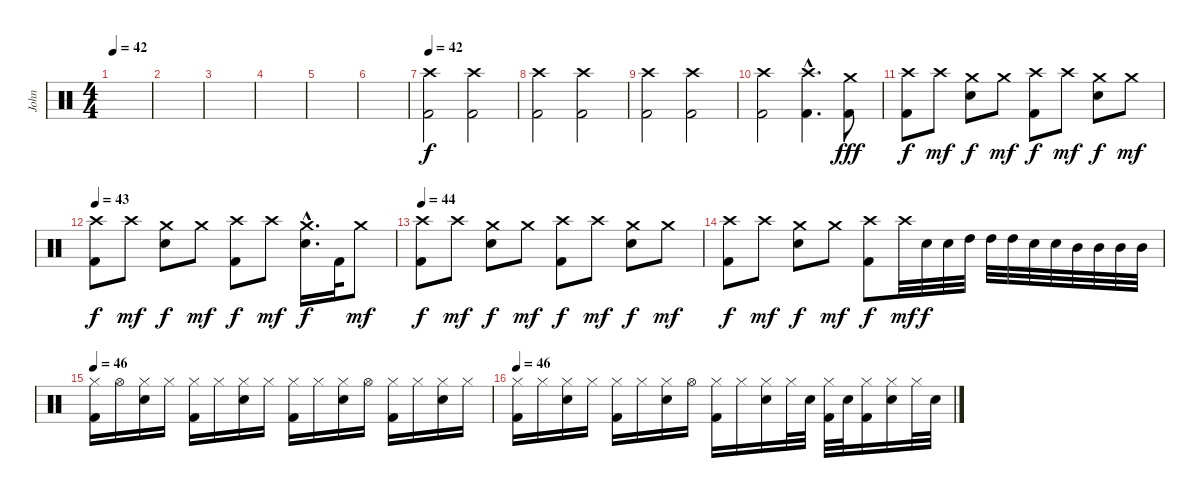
\track ("John" "John") {instrument percussion}
\staff {score}
\articulation defaults
\ts (4 4)
\tempo 42
\clef neutral
\ks c
|
|
|
|
|
|
\tempo 42
("Crash high (hit)" "Kick (hit) 2").2 ("Crash high (hit)" "Kick (hit) 2").2 |
("Crash high (hit)" "Kick (hit) 2").2 ("Crash high (hit)" "Kick (hit) 2").2 |
("Crash high (hit)" "Kick (hit) 2").2 ("Crash high (hit)" "Kick (hit) 2").2 |
("Crash high (hit)" "Kick (hit) 2").2 ("Crash high (hit)"{hac} "Kick (hit) 2"{hac}).4{d} ("Crash medium (hit)" "Kick (hit) 2").8{dy fff} |
("Crash high (hit)" "Kick (hit) 2").8{dy f} "Crash high (hit)".8{dy mf} ("Crash medium (hit)" "Snare (hit) 2").8{dy f} "Crash medium (hit)".8{dy mf} ("Crash high (hit)" "Kick (hit) 2").8{dy f} "Crash high (hit)".8{dy mf} ("Crash medium (hit)" "Snare (hit) 2").8{dy f} "Crash medium (hit)".8{dy mf} |
\tempo 43
("Crash high (hit)" "Kick (hit) 2").8{dy f} "Crash high (hit)".8{dy mf} ("Crash medium (hit)" "Snare (hit) 2").8{dy f} "Crash medium (hit)".8{dy mf} ("Crash high (hit)" "Kick (hit) 2").8{dy f} "Crash high (hit)".8{dy mf} ("Crash medium (hit)"{hac} "Snare (hit) 2"{hac}).16{d dy f} "Kick (hit) 2".32 "Crash medium (hit)".8{dy mf} |
\tempo 44
("Crash high (hit)" "Kick (hit) 2").8{dy f} "Crash high (hit)".8{dy mf} ("Crash medium (hit)" "Snare (hit) 2").8{dy f} "Crash medium (hit)".8{dy mf} ("Crash high (hit)" "Kick (hit) 2").8{dy f} "Crash high (hit)".8{dy mf} ("Crash medium (hit)" "Snare (hit) 2").8{dy f} "Crash medium (hit)".8{dy mf} |
("Crash high (hit)" "Kick (hit) 2").8{dy f} "Crash high (hit)".8{dy mf} ("Crash medium (hit)" "Snare (hit) 2").8{dy f} "Crash medium (hit)".8{dy mf} ("Crash high (hit)" "Kick (hit) 2").8{dy f} "Crash high (hit)".32{dy mf} "Snare (hit) 2".32{dy f} "Snare (hit) 2".32 "High Tom (hit)".32 "High Tom (hit)".32 "High Tom (hit)".32 "Snare (hit) 2".32 "Snare (hit) 2".32 "Mid Tom (hit)".32 "Mid Tom (hit)".32 "Mid Tom (hit)".32 "Mid Tom (hit)".32 |
\tempo 46
("Hi-Hat (closed)" "Kick (hit) 2").16 "Hi-Hat (open)".16 ("Hi-Hat (closed)" "Snare (hit) 2").16 "Hi-Hat (closed)".16 ("Hi-Hat (closed)" "Kick (hit) 2").16 "Hi-Hat (closed)".16 ("Hi-Hat (closed)" "Snare (hit) 2").16 "Hi-Hat (closed)".16 ("Hi-Hat (closed)" "Kick (hit) 2").16 "Hi-Hat (closed)".16 ("Hi-Hat (closed)" "Snare (hit) 2").16 "Hi-Hat (open)".16 ("Hi-Hat (closed)" "Kick (hit) 2").16 "Hi-Hat (closed)".16 ("Hi-Hat (closed)" "Snare (hit) 2").16 "Hi-Hat (closed)".16 |
\tempo 46
("Hi-Hat (closed)" "Kick (hit) 2").16 "Hi-Hat (closed)".16 ("Hi-Hat (closed)" "Snare (hit) 2").16 "Hi-Hat (closed)".16 ("Hi-Hat (closed)" "Kick (hit) 2").16 "Hi-Hat (closed)".16 ("Hi-Hat (closed)" "Snare (hit) 2").16 "Hi-Hat (open)".16 ("Hi-Hat (closed)" "Kick (hit) 2").16 "Hi-Hat (closed)".16 ("Hi-Hat (closed)" "Snare (hit) 2").16 "Hi-Hat (closed)".32 "Snare (hit) 2".32 ("Hi-Hat (closed)" "Kick (hit) 2").32 "Snare (hit) 2".32 ("Hi-Hat (closed)" "Kick (hit) 2").16 ("Hi-Hat (closed)" "Snare (hit) 2").16 "Hi-Hat (closed)".32 "Snare (hit) 2".32
